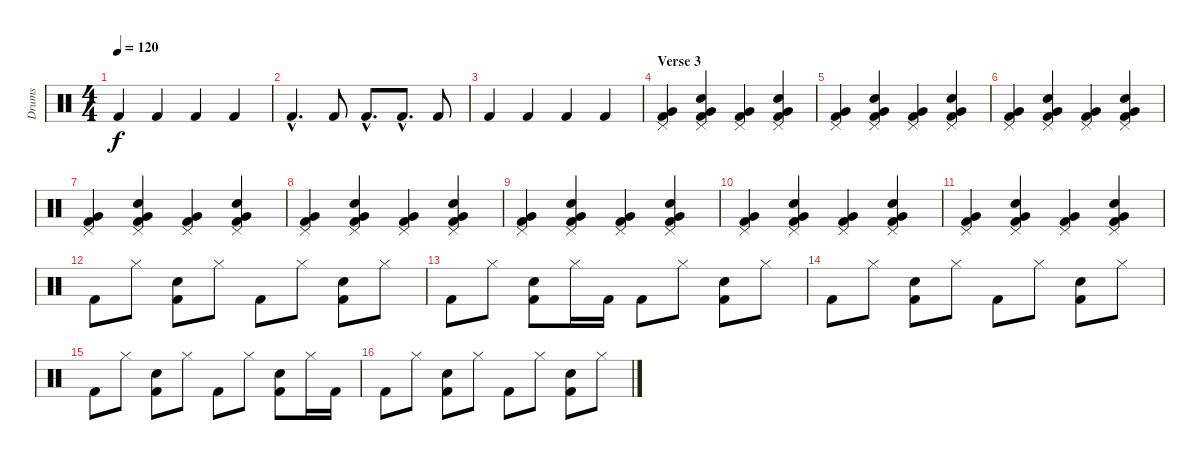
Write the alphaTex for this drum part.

\track ("Drums" "Drums") {instrument percussion}
\staff {score}
\articulation defaults
\ts (4 4)
\tempo 120
\clef neutral
\ks c "Kick (hit) 2".4{dy f} "Kick (hit) 2".4 "Kick (hit) 2".4 "Kick (hit) 2".4
|
"Kick (hit) 2"{hac}.4{d} "Kick (hit) 2".8 "Kick (hit) 2"{hac}.8{d} "Kick (hit) 2"{hac}.8{d} "Kick (hit) 2".8 |
"Kick (hit) 2".4 "Kick (hit) 2".4 "Kick (hit) 2".4 "Kick (hit) 2".4 |
\section ("" "Verse 3")
("Pedal Hi-Hat (hit)" "Very Low Tom (hit)" "Kick (hit) 2").4 ("Pedal Hi-Hat (hit)" "Very Low Tom (hit)" "Snare (hit) 2" "Kick (hit) 2").4 ("Pedal Hi-Hat (hit)" "Very Low Tom (hit)" "Kick (hit) 2").4 ("Pedal Hi-Hat (hit)" "Very Low Tom (hit)" "Snare (hit) 2" "Kick (hit) 2").4 |
("Pedal Hi-Hat (hit)" "Very Low Tom (hit)" "Kick (hit) 2").4 ("Pedal Hi-Hat (hit)" "Very Low Tom (hit)" "Snare (hit) 2" "Kick (hit) 2").4 ("Pedal Hi-Hat (hit)" "Very Low Tom (hit)" "Kick (hit) 2").4 ("Pedal Hi-Hat (hit)" "Very Low Tom (hit)" "Snare (hit) 2" "Kick (hit) 2").4 |
("Pedal Hi-Hat (hit)" "Very Low Tom (hit)" "Kick (hit) 2").4 ("Pedal Hi-Hat (hit)" "Very Low Tom (hit)" "Snare (hit) 2" "Kick (hit) 2").4 ("Pedal Hi-Hat (hit)" "Very Low Tom (hit)" "Kick (hit) 2").4 ("Pedal Hi-Hat (hit)" "Very Low Tom (hit)" "Snare (hit) 2" "Kick (hit) 2").4 |
("Pedal Hi-Hat (hit)" "Very Low Tom (hit)" "Kick (hit) 2").4 ("Pedal Hi-Hat (hit)" "Very Low Tom (hit)" "Snare (hit) 2" "Kick (hit) 2").4 ("Pedal Hi-Hat (hit)" "Very Low Tom (hit)" "Kick (hit) 2").4 ("Pedal Hi-Hat (hit)" "Very Low Tom (hit)" "Snare (hit) 2" "Kick (hit) 2").4 |
("Pedal Hi-Hat (hit)" "Very Low Tom (hit)" "Kick (hit) 2").4 ("Pedal Hi-Hat (hit)" "Very Low Tom (hit)" "Snare (hit) 2" "Kick (hit) 2").4 ("Pedal Hi-Hat (hit)" "Very Low Tom (hit)" "Kick (hit) 2").4 ("Pedal Hi-Hat (hit)" "Very Low Tom (hit)" "Snare (hit) 2" "Kick (hit) 2").4 |
("Pedal Hi-Hat (hit)" "Very Low Tom (hit)" "Kick (hit) 2").4 ("Pedal Hi-Hat (hit)" "Very Low Tom (hit)" "Snare (hit) 2" "Kick (hit) 2").4 ("Pedal Hi-Hat (hit)" "Very Low Tom (hit)" "Kick (hit) 2").4 ("Pedal Hi-Hat (hit)" "Very Low Tom (hit)" "Snare (hit) 2" "Kick (hit) 2").4 |
("Pedal Hi-Hat (hit)" "Very Low Tom (hit)" "Kick (hit) 2").4 ("Pedal Hi-Hat (hit)" "Very Low Tom (hit)" "Snare (hit) 2" "Kick (hit) 2").4 ("Pedal Hi-Hat (hit)" "Very Low Tom (hit)" "Kick (hit) 2").4 ("Pedal Hi-Hat (hit)" "Very Low Tom (hit)" "Snare (hit) 2" "Kick (hit) 2").4 |
("Pedal Hi-Hat (hit)" "Very Low Tom (hit)" "Kick (hit) 2").4 ("Pedal Hi-Hat (hit)" "Very Low Tom (hit)" "Snare (hit) 2" "Kick (hit) 2").4 ("Pedal Hi-Hat (hit)" "Very Low Tom (hit)" "Kick (hit) 2").4 ("Pedal Hi-Hat (hit)" "Very Low Tom (hit)" "Snare (hit) 2" "Kick (hit) 2").4 |
"Kick (hit) 2".8 "Hi-Hat (closed)".8 ("Snare (hit) 2" "Kick (hit) 2").8 "Hi-Hat (closed)".8 "Kick (hit) 2".8 "Hi-Hat (closed)".8 ("Snare (hit) 2" "Kick (hit) 2").8 "Hi-Hat (closed)".8 |
"Kick (hit) 2".8 "Hi-Hat (closed)".8 ("Snare (hit) 2" "Kick (hit) 2").8 "Hi-Hat (closed)".16 "Kick (hit) 2".16 "Kick (hit) 2".8 "Hi-Hat (closed)".8 ("Snare (hit) 2" "Kick (hit) 2").8 "Hi-Hat (closed)".8 |
"Kick (hit) 2".8 "Hi-Hat (closed)".8 ("Snare (hit) 2" "Kick (hit) 2").8 "Hi-Hat (closed)".8 "Kick (hit) 2".8 "Hi-Hat (closed)".8 ("Snare (hit) 2" "Kick (hit) 2").8 "Hi-Hat (closed)".8 |
"Kick (hit) 2".8 "Hi-Hat (closed)".8 ("Snare (hit) 2" "Kick (hit) 2").8 "Hi-Hat (closed)".8 "Kick (hit) 2".8 "Hi-Hat (closed)".8 ("Snare (hit) 2" "Kick (hit) 2").8 "Hi-Hat (closed)".16 "Kick (hit) 2".16 |
"Kick (hit) 2".8 "Hi-Hat (closed)".8 ("Snare (hit) 2" "Kick (hit) 2").8 "Hi-Hat (closed)".8 "Kick (hit) 2".8 "Hi-Hat (closed)".8 ("Snare (hit) 2" "Kick (hit) 2").8 "Hi-Hat (closed)".8
